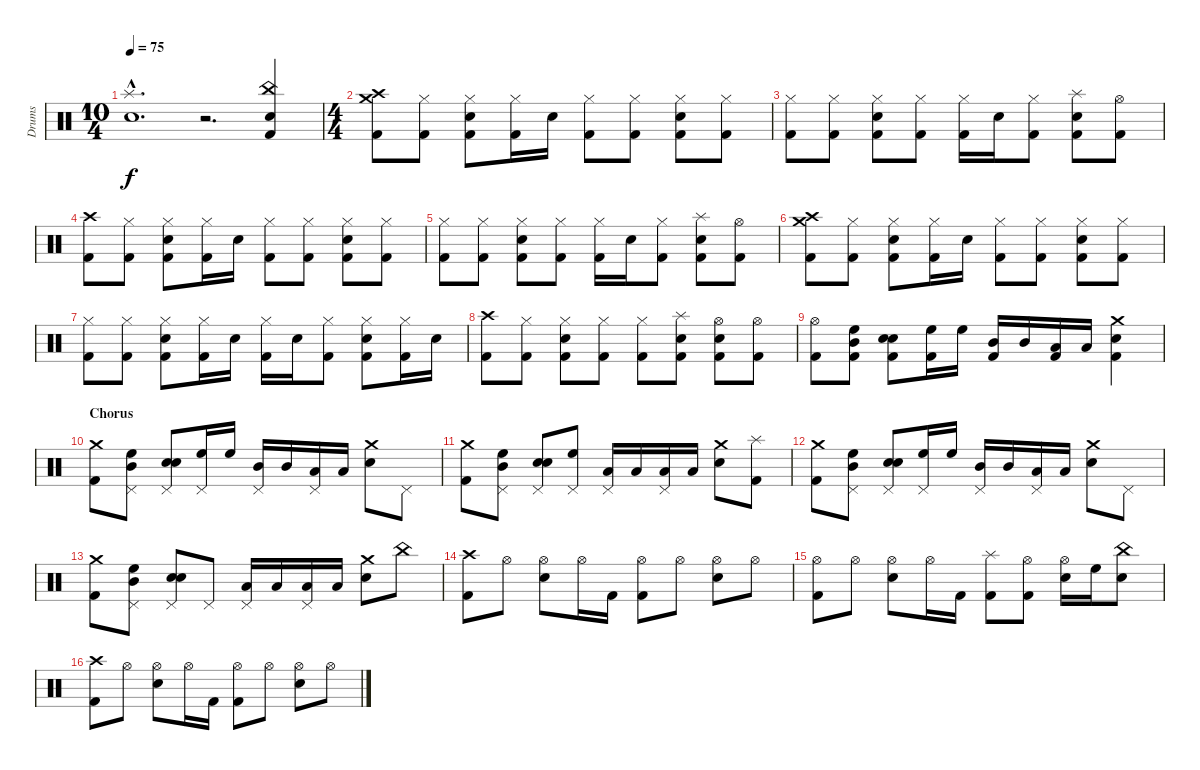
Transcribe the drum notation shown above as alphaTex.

\track ("Drums" "Drums") {instrument percussion}
\staff {score}
\articulation defaults
\ts (10 4)
\tempo 75
\clef neutral
\ks c
("Splash (hit)"{hac} "Snare (hit) 2"{hac}).1{d dy f} r.2{d} ("China (hit)" "Snare (hit) 2" "Kick (hit) 2").4 |
\ts (4 4)
("Crash high (hit)" "Crash medium (hit)" "Kick (hit) 2").8 ("Hi-Hat (closed)" "Kick (hit) 2").8 ("Hi-Hat (closed)" "Snare (hit) 2" "Kick (hit) 2").8 ("Hi-Hat (closed)" "Kick (hit) 2").16 "Snare (hit) 2".16 ("Hi-Hat (closed)" "Kick (hit) 2").8 ("Hi-Hat (closed)" "Kick (hit) 2").8 ("Hi-Hat (closed)" "Snare (hit) 2" "Kick (hit) 2").8 ("Hi-Hat (closed)" "Kick (hit) 2").8 |
("Hi-Hat (closed)" "Kick (hit) 2").8 ("Hi-Hat (closed)" "Kick (hit) 2").8 ("Hi-Hat (closed)" "Snare (hit) 2" "Kick (hit) 2").8 ("Hi-Hat (closed)" "Kick (hit) 2").8 ("Hi-Hat (closed)" "Kick (hit) 2").16 "Snare (hit) 2".16 ("Hi-Hat (closed)" "Kick (hit) 2").8 ("Splash (hit)" "Snare (hit) 2" "Kick (hit) 2").8 ("Hi-Hat (open)" "Kick (hit) 2").8 |
("Crash high (hit)" "Kick (hit) 2").8 ("Hi-Hat (closed)" "Kick (hit) 2").8 ("Hi-Hat (closed)" "Snare (hit) 2" "Kick (hit) 2").8 ("Hi-Hat (closed)" "Kick (hit) 2").16 "Snare (hit) 2".16 ("Hi-Hat (closed)" "Kick (hit) 2").8 ("Hi-Hat (closed)" "Kick (hit) 2").8 ("Hi-Hat (closed)" "Snare (hit) 2" "Kick (hit) 2").8 ("Hi-Hat (closed)" "Kick (hit) 2").8 |
("Hi-Hat (closed)" "Kick (hit) 2").8 ("Hi-Hat (closed)" "Kick (hit) 2").8 ("Hi-Hat (closed)" "Snare (hit) 2" "Kick (hit) 2").8 ("Hi-Hat (closed)" "Kick (hit) 2").8 ("Hi-Hat (closed)" "Kick (hit) 2").16 "Snare (hit) 2".16 ("Hi-Hat (closed)" "Kick (hit) 2").8 ("Splash (hit)" "Snare (hit) 2" "Kick (hit) 2").8 ("Hi-Hat (open)" "Kick (hit) 2").8 |
("Crash high (hit)" "Crash medium (hit)" "Kick (hit) 2").8 ("Hi-Hat (closed)" "Kick (hit) 2").8 ("Hi-Hat (closed)" "Snare (hit) 2" "Kick (hit) 2").8 ("Hi-Hat (closed)" "Kick (hit) 2").16 "Snare (hit) 2".16 ("Hi-Hat (closed)" "Kick (hit) 2").8 ("Hi-Hat (closed)" "Kick (hit) 2").8 ("Hi-Hat (closed)" "Snare (hit) 2" "Kick (hit) 2").8 ("Hi-Hat (closed)" "Kick (hit) 2").8 |
("Hi-Hat (closed)" "Kick (hit) 2").8 ("Hi-Hat (closed)" "Kick (hit) 2").8 ("Hi-Hat (closed)" "Snare (hit) 2" "Kick (hit) 2").8 ("Hi-Hat (closed)" "Kick (hit) 2").16 "Snare (hit) 2".16 ("Hi-Hat (closed)" "Kick (hit) 2").16 "Snare (hit) 2".16 ("Hi-Hat (closed)" "Kick (hit) 2").8 ("Hi-Hat (closed)" "Snare (hit) 2" "Kick (hit) 2").8 ("Hi-Hat (closed)" "Kick (hit) 2").16 "Snare (hit) 2".16 |
("Crash high (hit)" "Kick (hit) 2").8 ("Hi-Hat (closed)" "Kick (hit) 2").8 ("Hi-Hat (closed)" "Snare (hit) 2" "Kick (hit) 2").8 ("Hi-Hat (closed)" "Kick (hit) 2").8 ("Hi-Hat (closed)" "Kick (hit) 2").8 ("Splash (hit)" "Snare (hit) 2" "Kick (hit) 2").8 ("Hi-Hat (open)" "Snare (hit) 2" "Kick (hit) 2").8 ("Hi-Hat (open)" "Kick (hit) 2").8 |
("Hi-Hat (open)" "Kick (hit) 2").8 ("High Floor Tom (hit)" "Mid Tom (hit)" "Kick (hit) 2").8 ("Snare (hit) 2" "Snare (hit) 2" "Kick (hit) 2").8 ("High Floor Tom (hit)" "Kick (hit) 2").16 "High Floor Tom (hit)".16 ("Mid Tom (hit)" "Kick (hit) 2").16 "Mid Tom (hit)".16 ("Low Tom (hit)" "Kick (hit) 2").16 "Low Tom (hit)".16 ("Crash medium (hit)" "Snare (hit) 2" "Kick (hit) 2").4 |
\section ("" "Chorus")
("Crash medium (hit)" "Kick (hit) 2").8 ("Pedal Hi-Hat (hit)" "High Floor Tom (hit)" "Mid Tom (hit)").8 ("Pedal Hi-Hat (hit)" "Snare (hit) 2" "Snare (hit) 2").8 ("Pedal Hi-Hat (hit)" "High Floor Tom (hit)").16 "High Floor Tom (hit)".16 ("Pedal Hi-Hat (hit)" "Mid Tom (hit)").16 "Mid Tom (hit)".16 ("Pedal Hi-Hat (hit)" "Low Tom (hit)").16 "Low Tom (hit)".16 ("Crash medium (hit)" "Snare (hit) 2").8 "Pedal Hi-Hat (hit)".8 |
("Crash medium (hit)" "Kick (hit) 2").8 ("Pedal Hi-Hat (hit)" "High Floor Tom (hit)" "Mid Tom (hit)").8 ("Pedal Hi-Hat (hit)" "Snare (hit) 2" "Snare (hit) 2").8 ("Pedal Hi-Hat (hit)" "High Floor Tom (hit)").8 ("Pedal Hi-Hat (hit)" "Low Tom (hit)").16 "Low Tom (hit)".16 ("Pedal Hi-Hat (hit)" "Low Floor Tom (hit)").16 "Low Floor Tom (hit)".16 ("Crash medium (hit)" "Snare (hit) 2").8 ("Splash (hit)" "Kick (hit) 2").8 |
("Crash medium (hit)" "Kick (hit) 2").8 ("Pedal Hi-Hat (hit)" "High Floor Tom (hit)" "Mid Tom (hit)").8 ("Pedal Hi-Hat (hit)" "Snare (hit) 2" "Snare (hit) 2").8 ("Pedal Hi-Hat (hit)" "High Floor Tom (hit)").16 "High Floor Tom (hit)".16 ("Pedal Hi-Hat (hit)" "Mid Tom (hit)").16 "Mid Tom (hit)".16 ("Pedal Hi-Hat (hit)" "Low Tom (hit)").16 "Low Tom (hit)".16 ("Crash medium (hit)" "Snare (hit) 2").8 "Pedal Hi-Hat (hit)".8 |
("Crash medium (hit)" "Kick (hit) 2").8 ("Pedal Hi-Hat (hit)" "High Floor Tom (hit)" "Mid Tom (hit)").8 ("Pedal Hi-Hat (hit)" "Snare (hit) 2" "Snare (hit) 2").8 "Pedal Hi-Hat (hit)".8 ("Pedal Hi-Hat (hit)" "Low Tom (hit)").16 "Low Tom (hit)".16 ("Pedal Hi-Hat (hit)" "Low Floor Tom (hit)").16 "Low Floor Tom (hit)".16 ("Crash medium (hit)" "Snare (hit) 2").8 "China (hit)".8 |
("Crash high (hit)" "Kick (hit) 2").8 "Hi-Hat (open)".8 ("Hi-Hat (open)" "Snare (hit) 2").8 "Hi-Hat (open)".16 "Kick (hit) 2".16 ("Hi-Hat (open)" "Kick (hit) 2").8 "Hi-Hat (open)".8 ("Hi-Hat (open)" "Snare (hit) 2").8 "Hi-Hat (open)".8 |
("Hi-Hat (open)" "Kick (hit) 2").8 "Hi-Hat (open)".8 ("Hi-Hat (open)" "Snare (hit) 2").8 "Hi-Hat (open)".16 "Kick (hit) 2".16 ("Splash (hit)" "Kick (hit) 2").8 ("Hi-Hat (open)" "Kick (hit) 2").8 ("Hi-Hat (open)" "Snare (hit) 2").16 "High Floor Tom (hit)".16 ("China (hit)" "Snare (hit) 2").8 |
("Crash high (hit)" "Kick (hit) 2").8 "Hi-Hat (open)".8 ("Hi-Hat (open)" "Snare (hit) 2").8 "Hi-Hat (open)".16 "Kick (hit) 2".16 ("Hi-Hat (open)" "Kick (hit) 2").8 "Hi-Hat (open)".8 ("Hi-Hat (open)" "Snare (hit) 2").8 "Hi-Hat (open)".8
